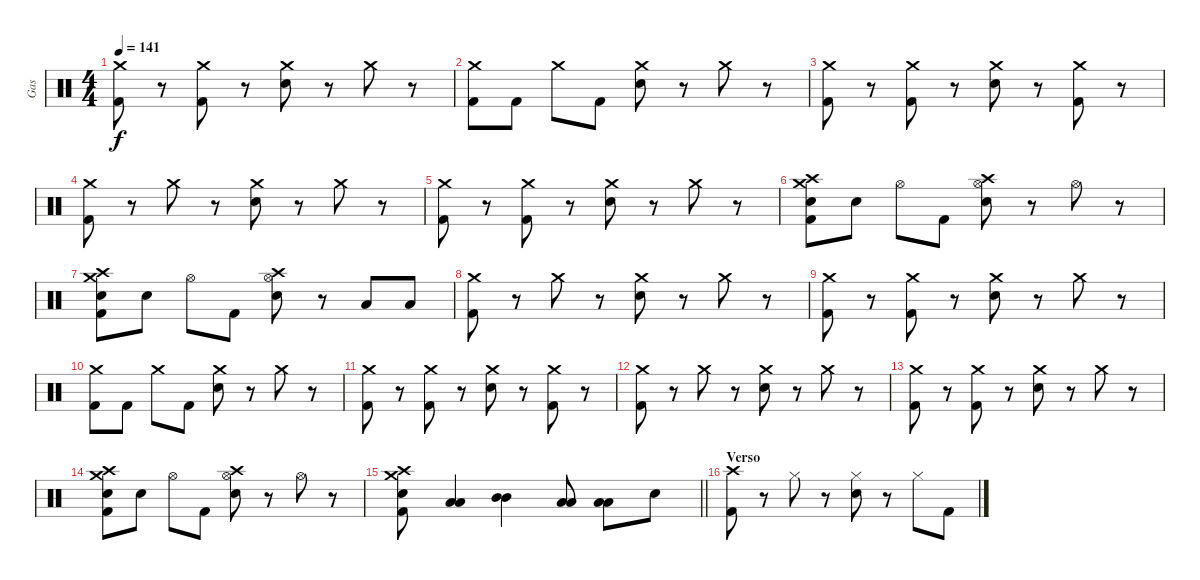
\track ("Gas" "Gas") {instrument percussion}
\staff {score}
\articulation defaults
\ts (4 4)
\tempo 141
\clef neutral
\ks c
("Crash medium (hit)" "Kick (hit) 2").8{dy f} r.8 ("Crash medium (hit)" "Kick (hit) 2").8 r.8 ("Crash medium (hit)" "Electric Snare (hit)").8 r.8 "Crash medium (hit)".8 r.8 |
("Crash medium (hit)" "Kick (hit) 2").8 "Kick (hit) 2".8 "Crash medium (hit)".8 "Kick (hit) 2".8 ("Crash medium (hit)" "Electric Snare (hit)").8 r.8 "Crash medium (hit)".8 r.8 |
("Crash medium (hit)" "Kick (hit) 2").8 r.8 ("Crash medium (hit)" "Kick (hit) 2").8 r.8 ("Crash medium (hit)" "Electric Snare (hit)").8 r.8 ("Crash medium (hit)" "Kick (hit) 2").8 r.8 |
("Crash medium (hit)" "Kick (hit) 2").8 r.8 "Crash medium (hit)".8 r.8 ("Crash medium (hit)" "Electric Snare (hit)").8 r.8 "Crash medium (hit)".8 r.8 |
("Crash medium (hit)" "Kick (hit) 2").8 r.8 ("Crash medium (hit)" "Kick (hit) 2").8 r.8 ("Crash medium (hit)" "Electric Snare (hit)").8 r.8 "Crash medium (hit)".8 r.8 |
("Crash high (hit)" "Crash medium (hit)" "Electric Snare (hit)" "Kick (hit) 2").8 "Electric Snare (hit)".8 "Hi-Hat (open)".8 "Kick (hit) 2".8 ("Crash high (hit)" "Hi-Hat (open)" "Electric Snare (hit)").8 r.8 "Hi-Hat (open)".8 r.8 |
("Crash high (hit)" "Crash medium (hit)" "Electric Snare (hit)" "Kick (hit) 2").8 "Electric Snare (hit)".8 "Hi-Hat (open)".8 "Kick (hit) 2".8 ("Crash high (hit)" "Hi-Hat (open)" "Electric Snare (hit)").8 r.8 "Low Tom (hit)".8 "Low Tom (hit)".8 |
("Crash medium (hit)" "Kick (hit) 2").8 r.8 "Crash medium (hit)".8 r.8 ("Crash medium (hit)" "Electric Snare (hit)").8 r.8 "Crash medium (hit)".8 r.8 |
("Crash medium (hit)" "Kick (hit) 2").8 r.8 ("Crash medium (hit)" "Kick (hit) 2").8 r.8 ("Crash medium (hit)" "Electric Snare (hit)").8 r.8 "Crash medium (hit)".8 r.8 |
("Crash medium (hit)" "Kick (hit) 2").8 "Kick (hit) 2".8 "Crash medium (hit)".8 "Kick (hit) 2".8 ("Crash medium (hit)" "Electric Snare (hit)").8 r.8 "Crash medium (hit)".8 r.8 |
("Crash medium (hit)" "Kick (hit) 2").8 r.8 ("Crash medium (hit)" "Kick (hit) 2").8 r.8 ("Crash medium (hit)" "Electric Snare (hit)").8 r.8 ("Crash medium (hit)" "Kick (hit) 2").8 r.8 |
("Crash medium (hit)" "Kick (hit) 2").8 r.8 "Crash medium (hit)".8 r.8 ("Crash medium (hit)" "Electric Snare (hit)").8 r.8 "Crash medium (hit)".8 r.8 |
("Crash medium (hit)" "Kick (hit) 2").8 r.8 ("Crash medium (hit)" "Kick (hit) 2").8 r.8 ("Crash medium (hit)" "Electric Snare (hit)").8 r.8 "Crash medium (hit)".8 r.8 |
("Crash high (hit)" "Crash medium (hit)" "Electric Snare (hit)" "Kick (hit) 2").8 "Electric Snare (hit)".8 "Hi-Hat (open)".8 "Kick (hit) 2".8 ("Crash high (hit)" "Hi-Hat (open)" "Electric Snare (hit)").8 r.8 "Hi-Hat (open)".8 r.8 |
\barLineRight lightlight
("Crash high (hit)" "Crash medium (hit)" "Electric Snare (hit)" "Kick (hit) 2").8 ("Low Tom (hit)" "Low Tom (hit)").4{bd 60} ("Mid Tom (hit)" "Mid Tom (hit)").4{bd 60} ("Low Tom (hit)" "Low Tom (hit)").8{bd 60} ("Low Tom (hit)" "Low Tom (hit)").8{bd 60} "Electric Snare (hit)".8 |
\section ("" "Verso")
("Crash high (hit)" "Kick (hit) 2").8 r.8 "Hi-Hat (closed)".8 r.8 ("Hi-Hat (closed)" "Electric Snare (hit)").8 r.8 "Hi-Hat (closed)".8 "Kick (hit) 2".8
